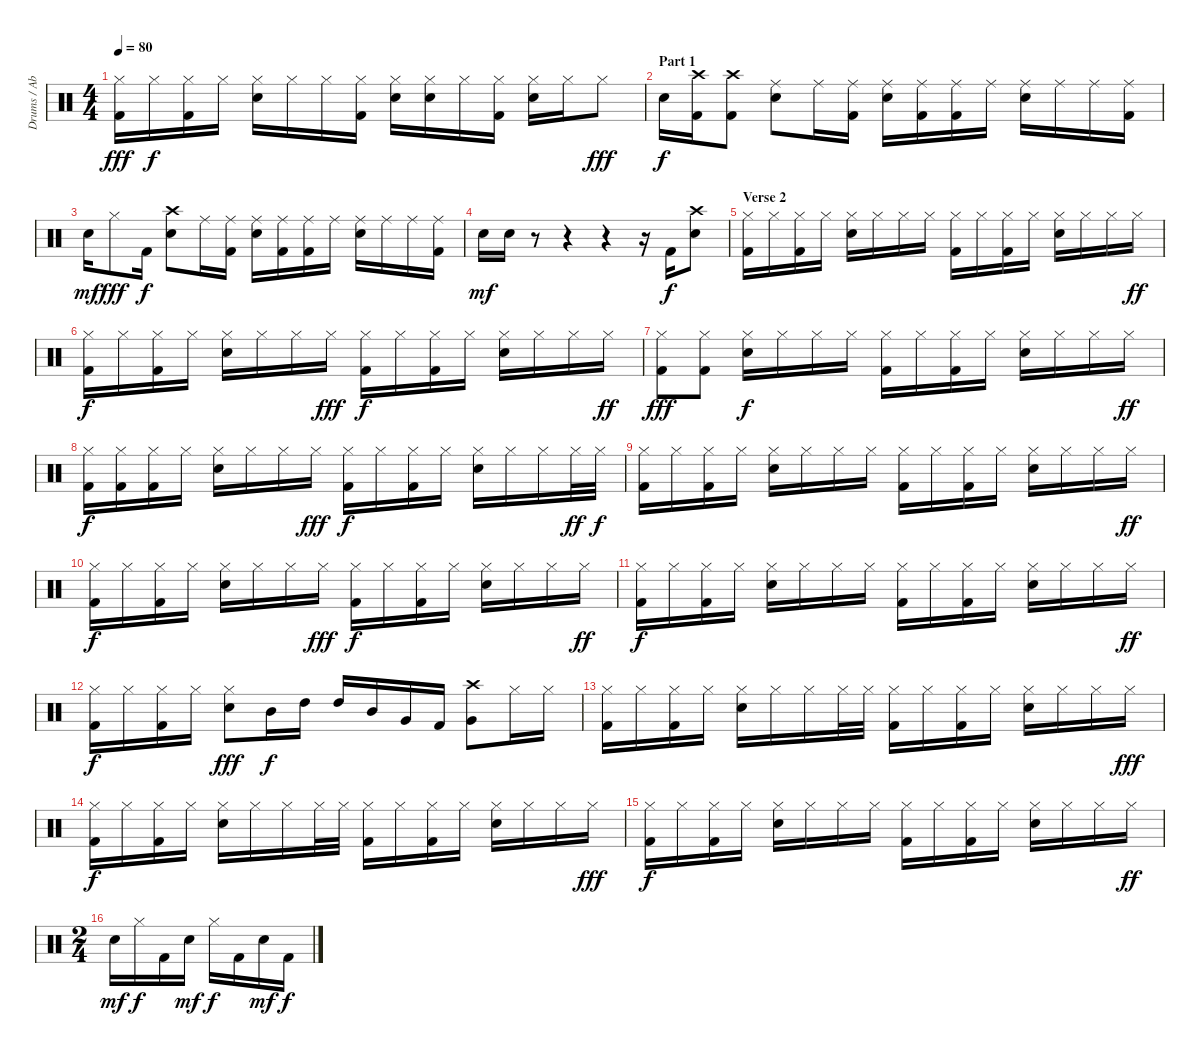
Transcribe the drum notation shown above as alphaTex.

\track ("Drums / Abe Cunningham" "Drums / Ab") {instrument percussion}
\staff {score}
\articulation defaults
\ts (4 4)
\tempo 80
\clef neutral
\ks c
("Hi-Hat (closed)" "Kick (hit) 2").16{dy fff} "Hi-Hat (closed)".16{dy f} ("Hi-Hat (closed)" "Kick (hit) 2").16 "Hi-Hat (closed)".16 ("Hi-Hat (closed)" "Electric Snare (hit)").16 "Hi-Hat (closed)".16 "Hi-Hat (closed)".16 ("Hi-Hat (closed)" "Kick (hit) 2").16 ("Hi-Hat (closed)" "Electric Snare (hit)").16 ("Hi-Hat (closed)" "Electric Snare (hit)").16 "Hi-Hat (closed)".16 ("Hi-Hat (closed)" "Kick (hit) 2").16 ("Hi-Hat (closed)" "Electric Snare (hit)").16 "Hi-Hat (closed)".16 "Hi-Hat (closed)".8{dy fff} |
\section ("" "Part 1")
"Electric Snare (hit)".16{dy f} ("Crash high (hit)" "Kick (hit) 2").16 ("Crash high (hit)" "Kick (hit) 2").8 ("Ride (middle)" "Electric Snare (hit)").8 "Ride (middle)".16 ("Ride (middle)" "Kick (hit) 2").16 ("Ride (middle)" "Electric Snare (hit)").16 ("Ride (middle)" "Kick (hit) 2").16 ("Ride (middle)" "Kick (hit) 2").16 "Ride (middle)".16 ("Ride (middle)" "Electric Snare (hit)").16 "Ride (middle)".16 "Ride (middle)".16 ("Ride (middle)" "Kick (hit) 2").16 |
"Electric Snare (hit)".16{dy mf} "Hi-Hat (closed)".8{dy fff} "Kick (hit) 2".16{dy f} ("Crash high (hit)" "Electric Snare (hit)").8 "Ride (middle)".16 ("Ride (middle)" "Kick (hit) 2").16 ("Ride (middle)" "Electric Snare (hit)").16 ("Ride (middle)" "Kick (hit) 2").16 ("Ride (middle)" "Kick (hit) 2").16 "Ride (middle)".16 ("Ride (middle)" "Electric Snare (hit)").16 "Ride (middle)".16 "Ride (middle)".16 ("Ride (middle)" "Kick (hit) 2").16 |
"Electric Snare (hit)".16{dy mf} "Electric Snare (hit)".16 r.8 r.4 r.4 r.16 "Kick (hit) 2".16{dy f} ("Crash high (hit)" "Electric Snare (hit)").8 |
\section ("" "Verse 2")
("Hi-Hat (closed)" "Kick (hit) 2").16 "Hi-Hat (closed)".16 ("Hi-Hat (closed)" "Kick (hit) 2").16 "Hi-Hat (closed)".16 ("Hi-Hat (closed)" "Electric Snare (hit)").16 "Hi-Hat (closed)".16 "Hi-Hat (closed)".16 "Hi-Hat (closed)".16 ("Hi-Hat (closed)" "Kick (hit) 2").16 "Hi-Hat (closed)".16 ("Hi-Hat (closed)" "Kick (hit) 2").16 "Hi-Hat (closed)".16 ("Hi-Hat (closed)" "Electric Snare (hit)").16 "Hi-Hat (closed)".16 "Hi-Hat (closed)".16 "Hi-Hat (closed)".16{dy ff} |
("Hi-Hat (closed)" "Kick (hit) 2").16{dy f} "Hi-Hat (closed)".16 ("Hi-Hat (closed)" "Kick (hit) 2").16 "Hi-Hat (closed)".16 ("Hi-Hat (closed)" "Electric Snare (hit)").16 "Hi-Hat (closed)".16 "Hi-Hat (closed)".16 "Hi-Hat (closed)".16{dy fff} ("Hi-Hat (closed)" "Kick (hit) 2").16{dy f} "Hi-Hat (closed)".16 ("Hi-Hat (closed)" "Kick (hit) 2").16 "Hi-Hat (closed)".16 ("Hi-Hat (closed)" "Electric Snare (hit)").16 "Hi-Hat (closed)".16 "Hi-Hat (closed)".16 "Hi-Hat (closed)".16{dy ff} |
("Hi-Hat (closed)" "Kick (hit) 2").8{dy fff} ("Hi-Hat (closed)" "Kick (hit) 2").8 ("Hi-Hat (closed)" "Electric Snare (hit)").16{dy f} "Hi-Hat (closed)".16 "Hi-Hat (closed)".16 "Hi-Hat (closed)".16 ("Hi-Hat (closed)" "Kick (hit) 2").16 "Hi-Hat (closed)".16 ("Hi-Hat (closed)" "Kick (hit) 2").16 "Hi-Hat (closed)".16 ("Hi-Hat (closed)" "Electric Snare (hit)").16 "Hi-Hat (closed)".16 "Hi-Hat (closed)".16 "Hi-Hat (closed)".16{dy ff} |
("Hi-Hat (closed)" "Kick (hit) 2").16{dy f} ("Hi-Hat (closed)" "Kick (hit) 2").16 ("Hi-Hat (closed)" "Kick (hit) 2").16 "Hi-Hat (closed)".16 ("Hi-Hat (closed)" "Electric Snare (hit)").16 "Hi-Hat (closed)".16 "Hi-Hat (closed)".16 "Hi-Hat (closed)".16{dy fff} ("Hi-Hat (closed)" "Kick (hit) 2").16{dy f} "Hi-Hat (closed)".16 ("Hi-Hat (closed)" "Kick (hit) 2").16 "Hi-Hat (closed)".16 ("Hi-Hat (closed)" "Electric Snare (hit)").16 "Hi-Hat (closed)".16 "Hi-Hat (closed)".16 "Hi-Hat (closed)".32{dy ff} "Hi-Hat (closed)".32{dy f} |
("Hi-Hat (closed)" "Kick (hit) 2").16 "Hi-Hat (closed)".16 ("Hi-Hat (closed)" "Kick (hit) 2").16 "Hi-Hat (closed)".16 ("Hi-Hat (closed)" "Electric Snare (hit)").16 "Hi-Hat (closed)".16 "Hi-Hat (closed)".16 "Hi-Hat (closed)".16 ("Hi-Hat (closed)" "Kick (hit) 2").16 "Hi-Hat (closed)".16 ("Hi-Hat (closed)" "Kick (hit) 2").16 "Hi-Hat (closed)".16 ("Hi-Hat (closed)" "Electric Snare (hit)").16 "Hi-Hat (closed)".16 "Hi-Hat (closed)".16 "Hi-Hat (closed)".16{dy ff} |
("Hi-Hat (closed)" "Kick (hit) 2").16{dy f} "Hi-Hat (closed)".16 ("Hi-Hat (closed)" "Kick (hit) 2").16 "Hi-Hat (closed)".16 ("Hi-Hat (closed)" "Electric Snare (hit)").16 "Hi-Hat (closed)".16 "Hi-Hat (closed)".16 "Hi-Hat (closed)".16{dy fff} ("Hi-Hat (closed)" "Kick (hit) 2").16{dy f} "Hi-Hat (closed)".16 ("Hi-Hat (closed)" "Kick (hit) 2").16 "Hi-Hat (closed)".16 ("Hi-Hat (closed)" "Electric Snare (hit)").16 "Hi-Hat (closed)".16 "Hi-Hat (closed)".16 "Hi-Hat (closed)".16{dy ff} |
("Hi-Hat (closed)" "Kick (hit) 2").16{dy f} "Hi-Hat (closed)".16 ("Hi-Hat (closed)" "Kick (hit) 2").16 "Hi-Hat (closed)".16 ("Hi-Hat (closed)" "Electric Snare (hit)").16 "Hi-Hat (closed)".16 "Hi-Hat (closed)".16 "Hi-Hat (closed)".16 ("Hi-Hat (closed)" "Kick (hit) 2").16 "Hi-Hat (closed)".16 ("Hi-Hat (closed)" "Kick (hit) 2").16 "Hi-Hat (closed)".16 ("Hi-Hat (closed)" "Electric Snare (hit)").16 "Hi-Hat (closed)".16 "Hi-Hat (closed)".16 "Hi-Hat (closed)".16{dy ff} |
("Hi-Hat (closed)" "Kick (hit) 2").16{dy f} "Hi-Hat (closed)".16 ("Hi-Hat (closed)" "Kick (hit) 2").16 "Hi-Hat (closed)".16 ("Hi-Hat (closed)" "Electric Snare (hit)").8{dy fff} "Mid Tom (hit)".16{dy f} "High Tom (hit)".16 "High Tom (hit)".16 "Mid Tom (hit)".16 "Very Low Tom (hit)".16 "Kick (hit) 2".16 ("Crash high (hit)" "Very Low Tom (hit)").8 "Hi-Hat (closed)".16 "Hi-Hat (closed)".16 |
("Hi-Hat (closed)" "Kick (hit) 2").16 "Hi-Hat (closed)".16 ("Hi-Hat (closed)" "Kick (hit) 2").16 "Hi-Hat (closed)".16 ("Hi-Hat (closed)" "Electric Snare (hit)").16 "Hi-Hat (closed)".16 "Hi-Hat (closed)".16 "Hi-Hat (closed)".32 "Hi-Hat (closed)".32 ("Hi-Hat (closed)" "Kick (hit) 2").16 "Hi-Hat (closed)".16 ("Hi-Hat (closed)" "Kick (hit) 2").16 "Hi-Hat (closed)".16 ("Hi-Hat (closed)" "Electric Snare (hit)").16 "Hi-Hat (closed)".16 "Hi-Hat (closed)".16 "Hi-Hat (closed)".16{dy fff} |
("Hi-Hat (closed)" "Kick (hit) 2").16{dy f} "Hi-Hat (closed)".16 ("Hi-Hat (closed)" "Kick (hit) 2").16 "Hi-Hat (closed)".16 ("Hi-Hat (closed)" "Electric Snare (hit)").16 "Hi-Hat (closed)".16 "Hi-Hat (closed)".16 "Hi-Hat (closed)".32 "Hi-Hat (closed)".32 ("Hi-Hat (closed)" "Kick (hit) 2").16 "Hi-Hat (closed)".16 ("Hi-Hat (closed)" "Kick (hit) 2").16 "Hi-Hat (closed)".16 ("Hi-Hat (closed)" "Electric Snare (hit)").16 "Hi-Hat (closed)".16 "Hi-Hat (closed)".16 "Hi-Hat (closed)".16{dy fff} |
("Hi-Hat (closed)" "Kick (hit) 2").16{dy f} "Hi-Hat (closed)".16 ("Hi-Hat (closed)" "Kick (hit) 2").16 "Hi-Hat (closed)".16 ("Hi-Hat (closed)" "Electric Snare (hit)").16 "Hi-Hat (closed)".16 "Hi-Hat (closed)".16 "Hi-Hat (closed)".16 ("Hi-Hat (closed)" "Kick (hit) 2").16 "Hi-Hat (closed)".16 ("Hi-Hat (closed)" "Kick (hit) 2").16 "Hi-Hat (closed)".16 ("Hi-Hat (closed)" "Electric Snare (hit)").16 "Hi-Hat (closed)".16 "Hi-Hat (closed)".16 "Hi-Hat (closed)".16{dy ff} |
\ts (2 4)
"Electric Snare (hit)".16{dy mf} "Hi-Hat (closed)".16{dy f} "Kick (hit) 2".16 "Electric Snare (hit)".16{dy mf} "Hi-Hat (closed)".16{dy f} "Kick (hit) 2".16 "Electric Snare (hit)".16{dy mf} "Kick (hit) 2".16{dy f}
